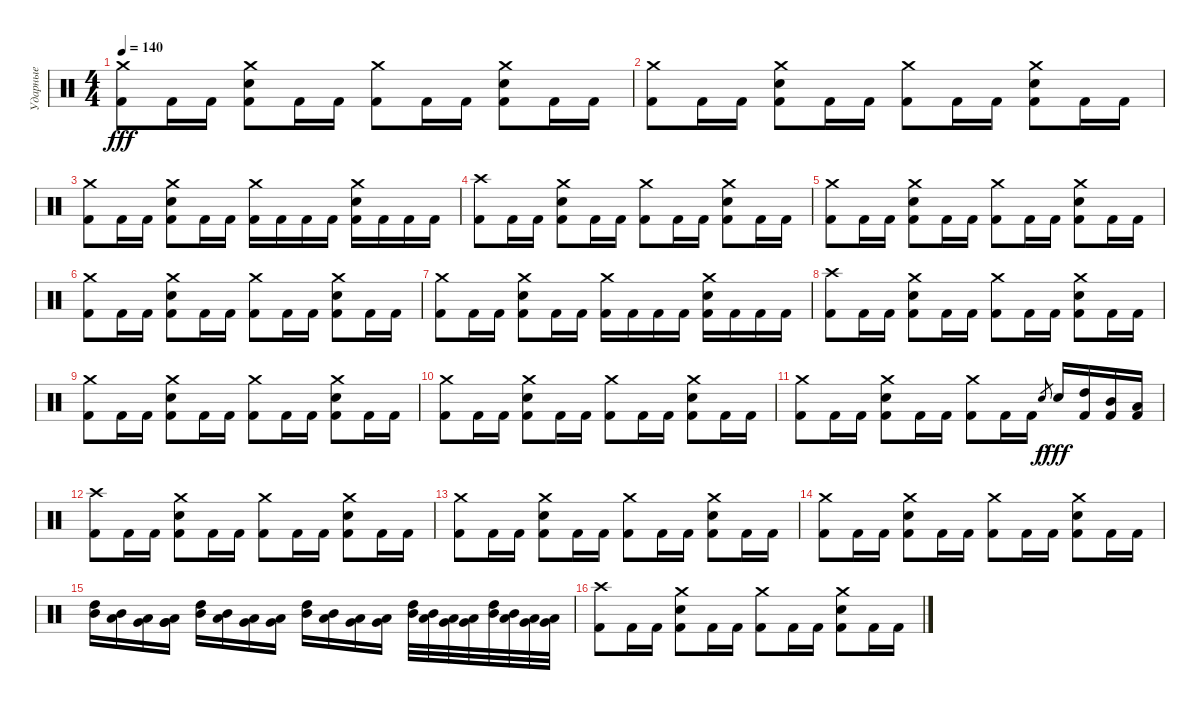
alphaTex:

\track ("Ударные" "Ударные") {instrument percussion}
\staff {score}
\articulation defaults
\ts (4 4)
\tempo 140
\clef neutral
\ks c
("Crash medium (hit)" "Kick (hit) 2").8{dy fff} "Kick (hit) 2".16 "Kick (hit) 2".16 ("Crash medium (hit)" "Electric Snare (hit)" "Kick (hit) 2").8 "Kick (hit) 2".16 "Kick (hit) 2".16 ("Crash medium (hit)" "Kick (hit) 2").8 "Kick (hit) 2".16 "Kick (hit) 2".16 ("Crash medium (hit)" "Electric Snare (hit)" "Kick (hit) 2").8 "Kick (hit) 2".16 "Kick (hit) 2".16 |
("Crash medium (hit)" "Kick (hit) 2").8 "Kick (hit) 2".16 "Kick (hit) 2".16 ("Crash medium (hit)" "Electric Snare (hit)" "Kick (hit) 2").8 "Kick (hit) 2".16 "Kick (hit) 2".16 ("Crash medium (hit)" "Kick (hit) 2").8 "Kick (hit) 2".16 "Kick (hit) 2".16 ("Crash medium (hit)" "Electric Snare (hit)" "Kick (hit) 2").8 "Kick (hit) 2".16 "Kick (hit) 2".16 |
("Crash medium (hit)" "Kick (hit) 2").8 "Kick (hit) 2".16 "Kick (hit) 2".16 ("Crash medium (hit)" "Electric Snare (hit)" "Kick (hit) 2").8 "Kick (hit) 2".16 "Kick (hit) 2".16 ("Crash medium (hit)" "Kick (hit) 2").16 "Kick (hit) 2".16 "Kick (hit) 2".16 "Kick (hit) 2".16 ("Crash medium (hit)" "Electric Snare (hit)" "Kick (hit) 2").16 "Kick (hit) 2".16 "Kick (hit) 2".16 "Kick (hit) 2".16 |
("Crash high (hit)" "Kick (hit) 2").8 "Kick (hit) 2".16 "Kick (hit) 2".16 ("Crash medium (hit)" "Electric Snare (hit)" "Kick (hit) 2").8 "Kick (hit) 2".16 "Kick (hit) 2".16 ("Crash medium (hit)" "Kick (hit) 2").8 "Kick (hit) 2".16 "Kick (hit) 2".16 ("Crash medium (hit)" "Electric Snare (hit)" "Kick (hit) 2").8 "Kick (hit) 2".16 "Kick (hit) 2".16 |
("Crash medium (hit)" "Kick (hit) 2").8 "Kick (hit) 2".16 "Kick (hit) 2".16 ("Crash medium (hit)" "Electric Snare (hit)" "Kick (hit) 2").8 "Kick (hit) 2".16 "Kick (hit) 2".16 ("Crash medium (hit)" "Kick (hit) 2").8 "Kick (hit) 2".16 "Kick (hit) 2".16 ("Crash medium (hit)" "Electric Snare (hit)" "Kick (hit) 2").8 "Kick (hit) 2".16 "Kick (hit) 2".16 |
("Crash medium (hit)" "Kick (hit) 2").8 "Kick (hit) 2".16 "Kick (hit) 2".16 ("Crash medium (hit)" "Electric Snare (hit)" "Kick (hit) 2").8 "Kick (hit) 2".16 "Kick (hit) 2".16 ("Crash medium (hit)" "Kick (hit) 2").8 "Kick (hit) 2".16 "Kick (hit) 2".16 ("Crash medium (hit)" "Electric Snare (hit)" "Kick (hit) 2").8 "Kick (hit) 2".16 "Kick (hit) 2".16 |
("Crash medium (hit)" "Kick (hit) 2").8 "Kick (hit) 2".16 "Kick (hit) 2".16 ("Crash medium (hit)" "Electric Snare (hit)" "Kick (hit) 2").8 "Kick (hit) 2".16 "Kick (hit) 2".16 ("Crash medium (hit)" "Kick (hit) 2").16 "Kick (hit) 2".16 "Kick (hit) 2".16 "Kick (hit) 2".16 ("Crash medium (hit)" "Electric Snare (hit)" "Kick (hit) 2").16 "Kick (hit) 2".16 "Kick (hit) 2".16 "Kick (hit) 2".16 |
("Crash high (hit)" "Kick (hit) 2").8 "Kick (hit) 2".16 "Kick (hit) 2".16 ("Crash medium (hit)" "Electric Snare (hit)" "Kick (hit) 2").8 "Kick (hit) 2".16 "Kick (hit) 2".16 ("Crash medium (hit)" "Kick (hit) 2").8 "Kick (hit) 2".16 "Kick (hit) 2".16 ("Crash medium (hit)" "Electric Snare (hit)" "Kick (hit) 2").8 "Kick (hit) 2".16 "Kick (hit) 2".16 |
("Crash medium (hit)" "Kick (hit) 2").8 "Kick (hit) 2".16 "Kick (hit) 2".16 ("Crash medium (hit)" "Electric Snare (hit)" "Kick (hit) 2").8 "Kick (hit) 2".16 "Kick (hit) 2".16 ("Crash medium (hit)" "Kick (hit) 2").8 "Kick (hit) 2".16 "Kick (hit) 2".16 ("Crash medium (hit)" "Electric Snare (hit)" "Kick (hit) 2").8 "Kick (hit) 2".16 "Kick (hit) 2".16 |
("Crash medium (hit)" "Kick (hit) 2").8 "Kick (hit) 2".16 "Kick (hit) 2".16 ("Crash medium (hit)" "Electric Snare (hit)" "Kick (hit) 2").8 "Kick (hit) 2".16 "Kick (hit) 2".16 ("Crash medium (hit)" "Kick (hit) 2").8 "Kick (hit) 2".16 "Kick (hit) 2".16 ("Crash medium (hit)" "Electric Snare (hit)" "Kick (hit) 2").8 "Kick (hit) 2".16 "Kick (hit) 2".16 |
("Crash medium (hit)" "Kick (hit) 2").8 "Kick (hit) 2".16 "Kick (hit) 2".16 ("Crash medium (hit)" "Electric Snare (hit)" "Kick (hit) 2").8 "Kick (hit) 2".16 "Kick (hit) 2".16 ("Crash medium (hit)" "Kick (hit) 2").8 "Kick (hit) 2".16 "Kick (hit) 2".16 "Electric Snare (hit)".8{gr dy f} "Electric Snare (hit)".16{dy fff} ("High Tom (hit)" "Kick (hit) 2").16 ("Mid Tom (hit)" "Kick (hit) 2").16 ("Low Tom (hit)" "Kick (hit) 2").16 |
("Crash high (hit)" "Kick (hit) 2").8 "Kick (hit) 2".16 "Kick (hit) 2".16 ("Crash medium (hit)" "Electric Snare (hit)" "Kick (hit) 2").8 "Kick (hit) 2".16 "Kick (hit) 2".16 ("Crash medium (hit)" "Kick (hit) 2").8 "Kick (hit) 2".16 "Kick (hit) 2".16 ("Crash medium (hit)" "Electric Snare (hit)" "Kick (hit) 2").8 "Kick (hit) 2".16 "Kick (hit) 2".16 |
("Crash medium (hit)" "Kick (hit) 2").8 "Kick (hit) 2".16 "Kick (hit) 2".16 ("Crash medium (hit)" "Electric Snare (hit)" "Kick (hit) 2").8 "Kick (hit) 2".16 "Kick (hit) 2".16 ("Crash medium (hit)" "Kick (hit) 2").8 "Kick (hit) 2".16 "Kick (hit) 2".16 ("Crash medium (hit)" "Electric Snare (hit)" "Kick (hit) 2").8 "Kick (hit) 2".16 "Kick (hit) 2".16 |
("Crash medium (hit)" "Kick (hit) 2").8 "Kick (hit) 2".16 "Kick (hit) 2".16 ("Crash medium (hit)" "Electric Snare (hit)" "Kick (hit) 2").8 "Kick (hit) 2".16 "Kick (hit) 2".16 ("Crash medium (hit)" "Kick (hit) 2").8 "Kick (hit) 2".16 "Kick (hit) 2".16 ("Crash medium (hit)" "Electric Snare (hit)" "Kick (hit) 2").8 "Kick (hit) 2".16 "Kick (hit) 2".16 |
("High Tom (hit)" "Mid Tom (hit)").16 ("Mid Tom (hit)" "Low Tom (hit)").16 ("Low Tom (hit)" "Very Low Tom (hit)").16 ("Very Low Tom (hit)" "Very Low Tom (hit)" "Low Floor Tom (hit)").16 ("High Tom (hit)" "Mid Tom (hit)").16 ("Mid Tom (hit)" "Low Tom (hit)").16 ("Low Tom (hit)" "Very Low Tom (hit)").16 ("Very Low Tom (hit)" "Low Floor Tom (hit)").16 ("High Tom (hit)" "Mid Tom (hit)").16 ("Mid Tom (hit)" "Low Tom (hit)").16 ("Low Tom (hit)" "Very Low Tom (hit)").16 ("Very Low Tom (hit)" "Low Floor Tom (hit)").16 ("High Tom (hit)" "Mid Tom (hit)").32 ("Mid Tom (hit)" "Low Tom (hit)").32 ("Low Tom (hit)" "Very Low Tom (hit)").32 ("Very Low Tom (hit)" "Low Floor Tom (hit)").32 ("High Tom (hit)" "Mid Tom (hit)").32 ("Mid Tom (hit)" "Low Tom (hit)").32 ("Low Tom (hit)" "Very Low Tom (hit)").32 ("Very Low Tom (hit)" "Low Floor Tom (hit)").32 |
("Crash high (hit)" "Kick (hit) 2").8 "Kick (hit) 2".16 "Kick (hit) 2".16 ("Crash medium (hit)" "Electric Snare (hit)" "Kick (hit) 2").8 "Kick (hit) 2".16 "Kick (hit) 2".16 ("Crash medium (hit)" "Kick (hit) 2").8 "Kick (hit) 2".16 "Kick (hit) 2".16 ("Crash medium (hit)" "Electric Snare (hit)" "Kick (hit) 2").8 "Kick (hit) 2".16 "Kick (hit) 2".16
